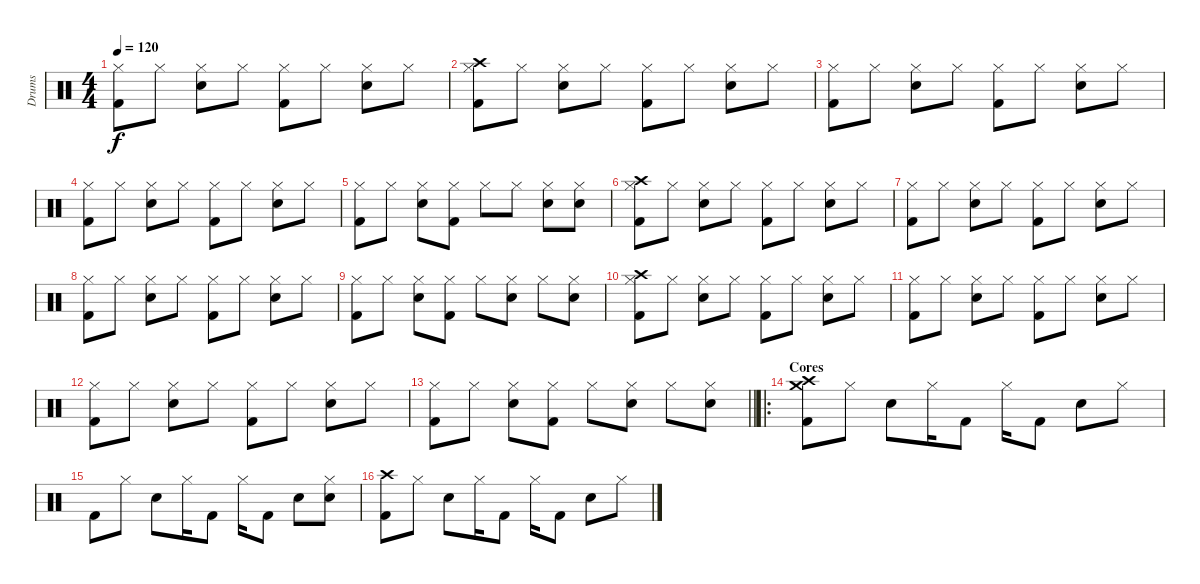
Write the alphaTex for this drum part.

\track ("Drums" "Drums") {instrument percussion}
\staff {score}
\articulation defaults
\ts (4 4)
\tempo 120
\clef neutral
\ks c
("Kick (hit) 2" "Hi-Hat (closed)").8{dy f} "Hi-Hat (closed)".8 ("Snare (hit) 2" "Hi-Hat (closed)").8 "Hi-Hat (closed)".8 ("Kick (hit) 2" "Hi-Hat (closed)").8 "Hi-Hat (closed)".8 ("Snare (hit) 2" "Hi-Hat (closed)").8 "Hi-Hat (closed)".8 |
("Kick (hit) 2" "Hi-Hat (closed)" "Crash high (hit)").8 "Hi-Hat (closed)".8 ("Snare (hit) 2" "Hi-Hat (closed)").8 "Hi-Hat (closed)".8 ("Kick (hit) 2" "Hi-Hat (closed)").8 "Hi-Hat (closed)".8 ("Snare (hit) 2" "Hi-Hat (closed)").8 "Hi-Hat (closed)".8 |
("Kick (hit) 2" "Hi-Hat (closed)").8 "Hi-Hat (closed)".8 ("Snare (hit) 2" "Hi-Hat (closed)").8 "Hi-Hat (closed)".8 ("Kick (hit) 2" "Hi-Hat (closed)").8 "Hi-Hat (closed)".8 ("Snare (hit) 2" "Hi-Hat (closed)").8 "Hi-Hat (closed)".8 |
("Kick (hit) 2" "Hi-Hat (closed)").8 "Hi-Hat (closed)".8 ("Snare (hit) 2" "Hi-Hat (closed)").8 "Hi-Hat (closed)".8 ("Kick (hit) 2" "Hi-Hat (closed)").8 "Hi-Hat (closed)".8 ("Snare (hit) 2" "Hi-Hat (closed)").8 "Hi-Hat (closed)".8 |
("Kick (hit) 2" "Hi-Hat (closed)").8 "Hi-Hat (closed)".8 ("Snare (hit) 2" "Hi-Hat (closed)").8 ("Kick (hit) 2" "Hi-Hat (closed)").8 "Hi-Hat (closed)".8 "Hi-Hat (closed)".8 ("Snare (hit) 2" "Hi-Hat (closed)").8 ("Snare (hit) 2" "Hi-Hat (closed)").8 |
("Kick (hit) 2" "Hi-Hat (closed)" "Crash high (hit)").8 "Hi-Hat (closed)".8 ("Snare (hit) 2" "Hi-Hat (closed)").8 "Hi-Hat (closed)".8 ("Kick (hit) 2" "Hi-Hat (closed)").8 "Hi-Hat (closed)".8 ("Snare (hit) 2" "Hi-Hat (closed)").8 "Hi-Hat (closed)".8 |
("Kick (hit) 2" "Hi-Hat (closed)").8 "Hi-Hat (closed)".8 ("Snare (hit) 2" "Hi-Hat (closed)").8 "Hi-Hat (closed)".8 ("Kick (hit) 2" "Hi-Hat (closed)").8 "Hi-Hat (closed)".8 ("Snare (hit) 2" "Hi-Hat (closed)").8 "Hi-Hat (closed)".8 |
("Kick (hit) 2" "Hi-Hat (closed)").8 "Hi-Hat (closed)".8 ("Snare (hit) 2" "Hi-Hat (closed)").8 "Hi-Hat (closed)".8 ("Kick (hit) 2" "Hi-Hat (closed)").8 "Hi-Hat (closed)".8 ("Snare (hit) 2" "Hi-Hat (closed)").8 "Hi-Hat (closed)".8 |
("Kick (hit) 2" "Hi-Hat (closed)").8 "Hi-Hat (closed)".8 ("Snare (hit) 2" "Hi-Hat (closed)").8 ("Kick (hit) 2" "Hi-Hat (closed)").8 "Hi-Hat (closed)".8 ("Snare (hit) 2" "Hi-Hat (closed)").8 "Hi-Hat (closed)".8 ("Snare (hit) 2" "Hi-Hat (closed)").8 |
("Kick (hit) 2" "Hi-Hat (closed)" "Crash high (hit)").8 "Hi-Hat (closed)".8 ("Snare (hit) 2" "Hi-Hat (closed)").8 "Hi-Hat (closed)".8 ("Kick (hit) 2" "Hi-Hat (closed)").8 "Hi-Hat (closed)".8 ("Snare (hit) 2" "Hi-Hat (closed)").8 "Hi-Hat (closed)".8 |
("Kick (hit) 2" "Hi-Hat (closed)").8 "Hi-Hat (closed)".8 ("Snare (hit) 2" "Hi-Hat (closed)").8 "Hi-Hat (closed)".8 ("Kick (hit) 2" "Hi-Hat (closed)").8 "Hi-Hat (closed)".8 ("Snare (hit) 2" "Hi-Hat (closed)").8 "Hi-Hat (closed)".8 |
("Kick (hit) 2" "Hi-Hat (closed)").8 "Hi-Hat (closed)".8 ("Snare (hit) 2" "Hi-Hat (closed)").8 "Hi-Hat (closed)".8 ("Kick (hit) 2" "Hi-Hat (closed)").8 "Hi-Hat (closed)".8 ("Snare (hit) 2" "Hi-Hat (closed)").8 "Hi-Hat (closed)".8 |
\barLineRight lightlight
("Kick (hit) 2" "Hi-Hat (closed)").8 "Hi-Hat (closed)".8 ("Snare (hit) 2" "Hi-Hat (closed)").8 ("Kick (hit) 2" "Hi-Hat (closed)").8 "Hi-Hat (closed)".8 ("Snare (hit) 2" "Hi-Hat (closed)").8 "Hi-Hat (closed)".8 ("Snare (hit) 2" "Hi-Hat (closed)").8 |
\ro
\section ("" "Cores")
("Kick (hit) 2" "Crash medium (hit)" "Crash high (hit)").8 "Hi-Hat (closed)".8 "Snare (hit) 2".8 "Hi-Hat (closed)".16 "Kick (hit) 2".8 "Hi-Hat (closed)".16 "Kick (hit) 2".8 "Snare (hit) 2".8 "Hi-Hat (closed)".8 |
"Kick (hit) 2".8 "Hi-Hat (closed)".8 "Snare (hit) 2".8 "Hi-Hat (closed)".16 "Kick (hit) 2".8 "Hi-Hat (closed)".16 "Kick (hit) 2".8 "Snare (hit) 2".8 ("Snare (hit) 2" "Hi-Hat (closed)").8 |
("Kick (hit) 2" "Crash high (hit)").8 "Hi-Hat (closed)".8 "Snare (hit) 2".8 "Hi-Hat (closed)".16 "Kick (hit) 2".8 "Hi-Hat (closed)".16 "Kick (hit) 2".8 "Snare (hit) 2".8 "Hi-Hat (closed)".8
